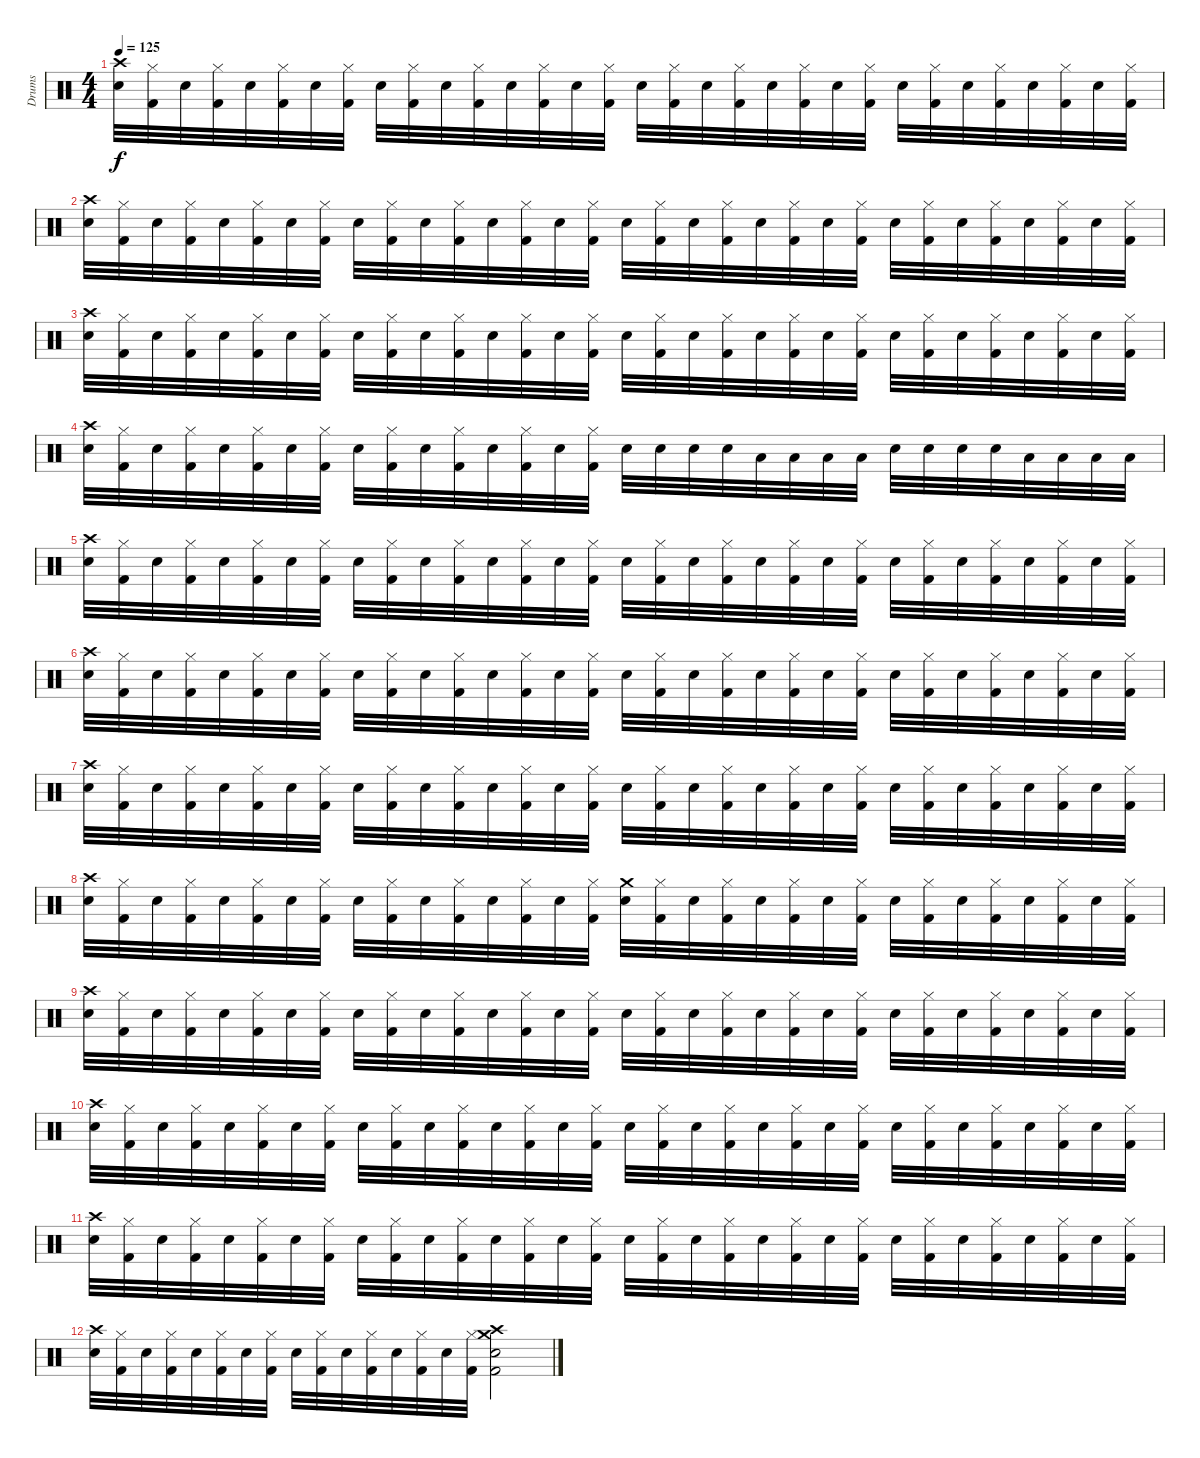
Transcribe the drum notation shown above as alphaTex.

\track ("Drums" "Drums") {instrument percussion}
\staff {score}
\articulation defaults
\ts (4 4)
\tempo 125
\clef neutral
\ks c
("Crash high (hit)" "Snare (hit) 2").32{dy f} ("Hi-Hat (closed)" "Kick (hit) 2").32 "Snare (hit) 2".32 ("Hi-Hat (closed)" "Kick (hit) 2").32 "Snare (hit) 2".32 ("Hi-Hat (closed)" "Kick (hit) 2").32 "Snare (hit) 2".32 ("Hi-Hat (closed)" "Kick (hit) 2").32 "Snare (hit) 2".32 ("Hi-Hat (closed)" "Kick (hit) 2").32 "Snare (hit) 2".32 ("Hi-Hat (closed)" "Kick (hit) 2").32 "Snare (hit) 2".32 ("Hi-Hat (closed)" "Kick (hit) 2").32 "Snare (hit) 2".32 ("Hi-Hat (closed)" "Kick (hit) 2").32 "Snare (hit) 2".32 ("Hi-Hat (closed)" "Kick (hit) 2").32 "Snare (hit) 2".32 ("Hi-Hat (closed)" "Kick (hit) 2").32 "Snare (hit) 2".32 ("Hi-Hat (closed)" "Kick (hit) 2").32 "Snare (hit) 2".32 ("Hi-Hat (closed)" "Kick (hit) 2").32 "Snare (hit) 2".32 ("Hi-Hat (closed)" "Kick (hit) 2").32 "Snare (hit) 2".32 ("Hi-Hat (closed)" "Kick (hit) 2").32 "Snare (hit) 2".32 ("Hi-Hat (closed)" "Kick (hit) 2").32 "Snare (hit) 2".32 ("Hi-Hat (closed)" "Kick (hit) 2").32 |
("Crash high (hit)" "Snare (hit) 2").32 ("Hi-Hat (closed)" "Kick (hit) 2").32 "Snare (hit) 2".32 ("Hi-Hat (closed)" "Kick (hit) 2").32 "Snare (hit) 2".32 ("Hi-Hat (closed)" "Kick (hit) 2").32 "Snare (hit) 2".32 ("Hi-Hat (closed)" "Kick (hit) 2").32 "Snare (hit) 2".32 ("Hi-Hat (closed)" "Kick (hit) 2").32 "Snare (hit) 2".32 ("Hi-Hat (closed)" "Kick (hit) 2").32 "Snare (hit) 2".32 ("Hi-Hat (closed)" "Kick (hit) 2").32 "Snare (hit) 2".32 ("Hi-Hat (closed)" "Kick (hit) 2").32 "Snare (hit) 2".32 ("Hi-Hat (closed)" "Kick (hit) 2").32 "Snare (hit) 2".32 ("Hi-Hat (closed)" "Kick (hit) 2").32 "Snare (hit) 2".32 ("Hi-Hat (closed)" "Kick (hit) 2").32 "Snare (hit) 2".32 ("Hi-Hat (closed)" "Kick (hit) 2").32 "Snare (hit) 2".32 ("Hi-Hat (closed)" "Kick (hit) 2").32 "Snare (hit) 2".32 ("Hi-Hat (closed)" "Kick (hit) 2").32 "Snare (hit) 2".32 ("Hi-Hat (closed)" "Kick (hit) 2").32 "Snare (hit) 2".32 ("Hi-Hat (closed)" "Kick (hit) 2").32 |
("Crash high (hit)" "Snare (hit) 2").32 ("Hi-Hat (closed)" "Kick (hit) 2").32 "Snare (hit) 2".32 ("Hi-Hat (closed)" "Kick (hit) 2").32 "Snare (hit) 2".32 ("Hi-Hat (closed)" "Kick (hit) 2").32 "Snare (hit) 2".32 ("Hi-Hat (closed)" "Kick (hit) 2").32 "Snare (hit) 2".32 ("Hi-Hat (closed)" "Kick (hit) 2").32 "Snare (hit) 2".32 ("Hi-Hat (closed)" "Kick (hit) 2").32 "Snare (hit) 2".32 ("Hi-Hat (closed)" "Kick (hit) 2").32 "Snare (hit) 2".32 ("Hi-Hat (closed)" "Kick (hit) 2").32 "Snare (hit) 2".32 ("Hi-Hat (closed)" "Kick (hit) 2").32 "Snare (hit) 2".32 ("Hi-Hat (closed)" "Kick (hit) 2").32 "Snare (hit) 2".32 ("Hi-Hat (closed)" "Kick (hit) 2").32 "Snare (hit) 2".32 ("Hi-Hat (closed)" "Kick (hit) 2").32 "Snare (hit) 2".32 ("Hi-Hat (closed)" "Kick (hit) 2").32 "Snare (hit) 2".32 ("Hi-Hat (closed)" "Kick (hit) 2").32 "Snare (hit) 2".32 ("Hi-Hat (closed)" "Kick (hit) 2").32 "Snare (hit) 2".32 ("Hi-Hat (closed)" "Kick (hit) 2").32 |
("Crash high (hit)" "Snare (hit) 2").32 ("Hi-Hat (closed)" "Kick (hit) 2").32 "Snare (hit) 2".32 ("Hi-Hat (closed)" "Kick (hit) 2").32 "Snare (hit) 2".32 ("Hi-Hat (closed)" "Kick (hit) 2").32 "Snare (hit) 2".32 ("Hi-Hat (closed)" "Kick (hit) 2").32 "Snare (hit) 2".32 ("Hi-Hat (closed)" "Kick (hit) 2").32 "Snare (hit) 2".32 ("Hi-Hat (closed)" "Kick (hit) 2").32 "Snare (hit) 2".32 ("Hi-Hat (closed)" "Kick (hit) 2").32 "Snare (hit) 2".32 ("Hi-Hat (closed)" "Kick (hit) 2").32 "Snare (hit) 2".32 "Snare (hit) 2".32 "Snare (hit) 2".32 "Snare (hit) 2".32 "Low Tom (hit)".32 "Low Tom (hit)".32 "Low Tom (hit)".32 "Low Tom (hit)".32 "Snare (hit) 2".32 "Snare (hit) 2".32 "Snare (hit) 2".32 "Snare (hit) 2".32 "Low Tom (hit)".32 "Low Tom (hit)".32 "Low Tom (hit)".32 "Low Tom (hit)".32 |
("Crash high (hit)" "Snare (hit) 2").32 ("Hi-Hat (closed)" "Kick (hit) 2").32 "Snare (hit) 2".32 ("Hi-Hat (closed)" "Kick (hit) 2").32 "Snare (hit) 2".32 ("Hi-Hat (closed)" "Kick (hit) 2").32 "Snare (hit) 2".32 ("Hi-Hat (closed)" "Kick (hit) 2").32 "Snare (hit) 2".32 ("Hi-Hat (closed)" "Kick (hit) 2").32 "Snare (hit) 2".32 ("Hi-Hat (closed)" "Kick (hit) 2").32 "Snare (hit) 2".32 ("Hi-Hat (closed)" "Kick (hit) 2").32 "Snare (hit) 2".32 ("Hi-Hat (closed)" "Kick (hit) 2").32 "Snare (hit) 2".32 ("Hi-Hat (closed)" "Kick (hit) 2").32 "Snare (hit) 2".32 ("Hi-Hat (closed)" "Kick (hit) 2").32 "Snare (hit) 2".32 ("Hi-Hat (closed)" "Kick (hit) 2").32 "Snare (hit) 2".32 ("Hi-Hat (closed)" "Kick (hit) 2").32 "Snare (hit) 2".32 ("Hi-Hat (closed)" "Kick (hit) 2").32 "Snare (hit) 2".32 ("Hi-Hat (closed)" "Kick (hit) 2").32 "Snare (hit) 2".32 ("Hi-Hat (closed)" "Kick (hit) 2").32 "Snare (hit) 2".32 ("Hi-Hat (closed)" "Kick (hit) 2").32 |
("Crash high (hit)" "Snare (hit) 2").32 ("Hi-Hat (closed)" "Kick (hit) 2").32 "Snare (hit) 2".32 ("Hi-Hat (closed)" "Kick (hit) 2").32 "Snare (hit) 2".32 ("Hi-Hat (closed)" "Kick (hit) 2").32 "Snare (hit) 2".32 ("Hi-Hat (closed)" "Kick (hit) 2").32 "Snare (hit) 2".32 ("Hi-Hat (closed)" "Kick (hit) 2").32 "Snare (hit) 2".32 ("Hi-Hat (closed)" "Kick (hit) 2").32 "Snare (hit) 2".32 ("Hi-Hat (closed)" "Kick (hit) 2").32 "Snare (hit) 2".32 ("Hi-Hat (closed)" "Kick (hit) 2").32 "Snare (hit) 2".32 ("Hi-Hat (closed)" "Kick (hit) 2").32 "Snare (hit) 2".32 ("Hi-Hat (closed)" "Kick (hit) 2").32 "Snare (hit) 2".32 ("Hi-Hat (closed)" "Kick (hit) 2").32 "Snare (hit) 2".32 ("Hi-Hat (closed)" "Kick (hit) 2").32 "Snare (hit) 2".32 ("Hi-Hat (closed)" "Kick (hit) 2").32 "Snare (hit) 2".32 ("Hi-Hat (closed)" "Kick (hit) 2").32 "Snare (hit) 2".32 ("Hi-Hat (closed)" "Kick (hit) 2").32 "Snare (hit) 2".32 ("Hi-Hat (closed)" "Kick (hit) 2").32 |
("Crash high (hit)" "Snare (hit) 2").32 ("Hi-Hat (closed)" "Kick (hit) 2").32 "Snare (hit) 2".32 ("Hi-Hat (closed)" "Kick (hit) 2").32 "Snare (hit) 2".32 ("Hi-Hat (closed)" "Kick (hit) 2").32 "Snare (hit) 2".32 ("Hi-Hat (closed)" "Kick (hit) 2").32 "Snare (hit) 2".32 ("Hi-Hat (closed)" "Kick (hit) 2").32 "Snare (hit) 2".32 ("Hi-Hat (closed)" "Kick (hit) 2").32 "Snare (hit) 2".32 ("Hi-Hat (closed)" "Kick (hit) 2").32 "Snare (hit) 2".32 ("Hi-Hat (closed)" "Kick (hit) 2").32 "Snare (hit) 2".32 ("Hi-Hat (closed)" "Kick (hit) 2").32 "Snare (hit) 2".32 ("Hi-Hat (closed)" "Kick (hit) 2").32 "Snare (hit) 2".32 ("Hi-Hat (closed)" "Kick (hit) 2").32 "Snare (hit) 2".32 ("Hi-Hat (closed)" "Kick (hit) 2").32 "Snare (hit) 2".32 ("Hi-Hat (closed)" "Kick (hit) 2").32 "Snare (hit) 2".32 ("Hi-Hat (closed)" "Kick (hit) 2").32 "Snare (hit) 2".32 ("Hi-Hat (closed)" "Kick (hit) 2").32 "Snare (hit) 2".32 ("Hi-Hat (closed)" "Kick (hit) 2").32 |
("Crash high (hit)" "Snare (hit) 2").32 ("Hi-Hat (closed)" "Kick (hit) 2").32 "Snare (hit) 2".32 ("Hi-Hat (closed)" "Kick (hit) 2").32 "Snare (hit) 2".32 ("Hi-Hat (closed)" "Kick (hit) 2").32 "Snare (hit) 2".32 ("Hi-Hat (closed)" "Kick (hit) 2").32 "Snare (hit) 2".32 ("Hi-Hat (closed)" "Kick (hit) 2").32 "Snare (hit) 2".32 ("Hi-Hat (closed)" "Kick (hit) 2").32 "Snare (hit) 2".32 ("Hi-Hat (closed)" "Kick (hit) 2").32 "Snare (hit) 2".32 ("Hi-Hat (closed)" "Kick (hit) 2").32 ("Crash medium (hit)" "Snare (hit) 2").32 ("Hi-Hat (closed)" "Kick (hit) 2").32 "Snare (hit) 2".32 ("Hi-Hat (closed)" "Kick (hit) 2").32 "Snare (hit) 2".32 ("Hi-Hat (closed)" "Kick (hit) 2").32 "Snare (hit) 2".32 ("Hi-Hat (closed)" "Kick (hit) 2").32 "Snare (hit) 2".32 ("Hi-Hat (closed)" "Kick (hit) 2").32 "Snare (hit) 2".32 ("Hi-Hat (closed)" "Kick (hit) 2").32 "Snare (hit) 2".32 ("Hi-Hat (closed)" "Kick (hit) 2").32 "Snare (hit) 2".32 ("Hi-Hat (closed)" "Kick (hit) 2").32 |
("Crash high (hit)" "Snare (hit) 2").32 ("Hi-Hat (closed)" "Kick (hit) 2").32 "Snare (hit) 2".32 ("Hi-Hat (closed)" "Kick (hit) 2").32 "Snare (hit) 2".32 ("Hi-Hat (closed)" "Kick (hit) 2").32 "Snare (hit) 2".32 ("Hi-Hat (closed)" "Kick (hit) 2").32 "Snare (hit) 2".32 ("Hi-Hat (closed)" "Kick (hit) 2").32 "Snare (hit) 2".32 ("Hi-Hat (closed)" "Kick (hit) 2").32 "Snare (hit) 2".32 ("Hi-Hat (closed)" "Kick (hit) 2").32 "Snare (hit) 2".32 ("Hi-Hat (closed)" "Kick (hit) 2").32 "Snare (hit) 2".32 ("Hi-Hat (closed)" "Kick (hit) 2").32 "Snare (hit) 2".32 ("Hi-Hat (closed)" "Kick (hit) 2").32 "Snare (hit) 2".32 ("Hi-Hat (closed)" "Kick (hit) 2").32 "Snare (hit) 2".32 ("Hi-Hat (closed)" "Kick (hit) 2").32 "Snare (hit) 2".32 ("Hi-Hat (closed)" "Kick (hit) 2").32 "Snare (hit) 2".32 ("Hi-Hat (closed)" "Kick (hit) 2").32 "Snare (hit) 2".32 ("Hi-Hat (closed)" "Kick (hit) 2").32 "Snare (hit) 2".32 ("Hi-Hat (closed)" "Kick (hit) 2").32 |
("Crash high (hit)" "Snare (hit) 2").32 ("Hi-Hat (closed)" "Kick (hit) 2").32 "Snare (hit) 2".32 ("Hi-Hat (closed)" "Kick (hit) 2").32 "Snare (hit) 2".32 ("Hi-Hat (closed)" "Kick (hit) 2").32 "Snare (hit) 2".32 ("Hi-Hat (closed)" "Kick (hit) 2").32 "Snare (hit) 2".32 ("Hi-Hat (closed)" "Kick (hit) 2").32 "Snare (hit) 2".32 ("Hi-Hat (closed)" "Kick (hit) 2").32 "Snare (hit) 2".32 ("Hi-Hat (closed)" "Kick (hit) 2").32 "Snare (hit) 2".32 ("Hi-Hat (closed)" "Kick (hit) 2").32 "Snare (hit) 2".32 ("Hi-Hat (closed)" "Kick (hit) 2").32 "Snare (hit) 2".32 ("Hi-Hat (closed)" "Kick (hit) 2").32 "Snare (hit) 2".32 ("Hi-Hat (closed)" "Kick (hit) 2").32 "Snare (hit) 2".32 ("Hi-Hat (closed)" "Kick (hit) 2").32 "Snare (hit) 2".32 ("Hi-Hat (closed)" "Kick (hit) 2").32 "Snare (hit) 2".32 ("Hi-Hat (closed)" "Kick (hit) 2").32 "Snare (hit) 2".32 ("Hi-Hat (closed)" "Kick (hit) 2").32 "Snare (hit) 2".32 ("Hi-Hat (closed)" "Kick (hit) 2").32 |
("Crash high (hit)" "Snare (hit) 2").32 ("Hi-Hat (closed)" "Kick (hit) 2").32 "Snare (hit) 2".32 ("Hi-Hat (closed)" "Kick (hit) 2").32 "Snare (hit) 2".32 ("Hi-Hat (closed)" "Kick (hit) 2").32 "Snare (hit) 2".32 ("Hi-Hat (closed)" "Kick (hit) 2").32 "Snare (hit) 2".32 ("Hi-Hat (closed)" "Kick (hit) 2").32 "Snare (hit) 2".32 ("Hi-Hat (closed)" "Kick (hit) 2").32 "Snare (hit) 2".32 ("Hi-Hat (closed)" "Kick (hit) 2").32 "Snare (hit) 2".32 ("Hi-Hat (closed)" "Kick (hit) 2").32 "Snare (hit) 2".32 ("Hi-Hat (closed)" "Kick (hit) 2").32 "Snare (hit) 2".32 ("Hi-Hat (closed)" "Kick (hit) 2").32 "Snare (hit) 2".32 ("Hi-Hat (closed)" "Kick (hit) 2").32 "Snare (hit) 2".32 ("Hi-Hat (closed)" "Kick (hit) 2").32 "Snare (hit) 2".32 ("Hi-Hat (closed)" "Kick (hit) 2").32 "Snare (hit) 2".32 ("Hi-Hat (closed)" "Kick (hit) 2").32 "Snare (hit) 2".32 ("Hi-Hat (closed)" "Kick (hit) 2").32 "Snare (hit) 2".32 ("Hi-Hat (closed)" "Kick (hit) 2").32 |
("Crash high (hit)" "Snare (hit) 2").32 ("Hi-Hat (closed)" "Kick (hit) 2").32 "Snare (hit) 2".32 ("Hi-Hat (closed)" "Kick (hit) 2").32 "Snare (hit) 2".32 ("Hi-Hat (closed)" "Kick (hit) 2").32 "Snare (hit) 2".32 ("Hi-Hat (closed)" "Kick (hit) 2").32 "Snare (hit) 2".32 ("Hi-Hat (closed)" "Kick (hit) 2").32 "Snare (hit) 2".32 ("Hi-Hat (closed)" "Kick (hit) 2").32 "Snare (hit) 2".32 ("Hi-Hat (closed)" "Kick (hit) 2").32 "Snare (hit) 2".32 ("Hi-Hat (closed)" "Kick (hit) 2").32 ("Crash high (hit)" "Crash medium (hit)" "Snare (hit) 2" "Kick (hit) 2").2
